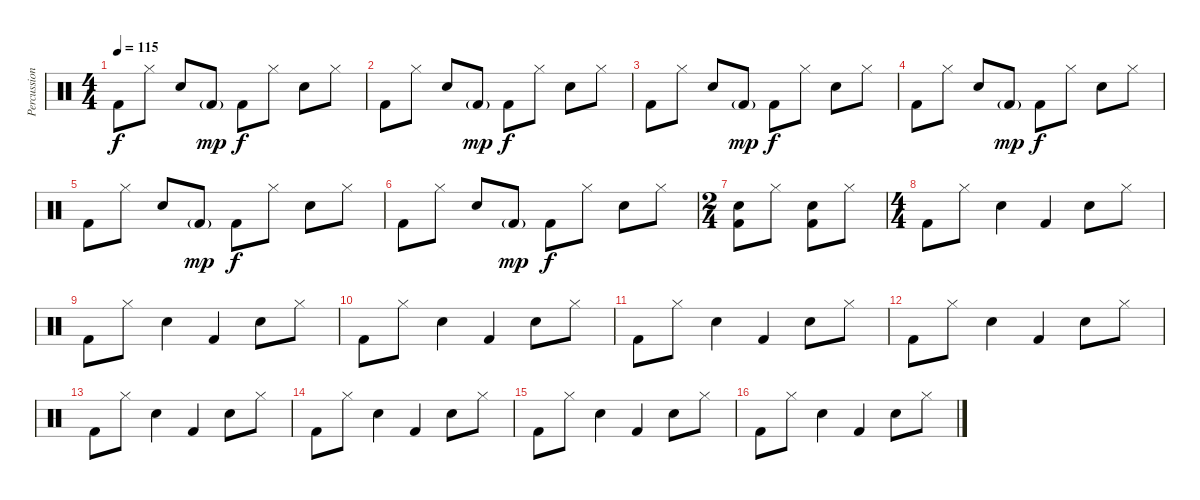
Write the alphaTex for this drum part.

\track ("Percussion" "Percussion") {instrument percussion}
\staff {score}
\articulation defaults
\ts (4 4)
\tempo 115
\clef neutral
\ks c "Kick (hit) 2".8{dy f} "Hi-Hat (closed)".8 "Snare (hit) 2".8 "Kick (hit) 2"{g}.8{dy mp} "Kick (hit) 2".8{dy f} "Hi-Hat (closed)".8 "Snare (hit) 2".8 "Hi-Hat (closed)".8
|
"Kick (hit) 2".8 "Hi-Hat (closed)".8 "Snare (hit) 2".8 "Kick (hit) 2"{g}.8{dy mp} "Kick (hit) 2".8{dy f} "Hi-Hat (closed)".8 "Snare (hit) 2".8 "Hi-Hat (closed)".8 |
"Kick (hit) 2".8 "Hi-Hat (closed)".8 "Snare (hit) 2".8 "Kick (hit) 2"{g}.8{dy mp} "Kick (hit) 2".8{dy f} "Hi-Hat (closed)".8 "Snare (hit) 2".8 "Hi-Hat (closed)".8 |
"Kick (hit) 2".8 "Hi-Hat (closed)".8 "Snare (hit) 2".8 "Kick (hit) 2"{g}.8{dy mp} "Kick (hit) 2".8{dy f} "Hi-Hat (closed)".8 "Snare (hit) 2".8 "Hi-Hat (closed)".8 |
"Kick (hit) 2".8 "Hi-Hat (closed)".8 "Snare (hit) 2".8 "Kick (hit) 2"{g}.8{dy mp} "Kick (hit) 2".8{dy f} "Hi-Hat (closed)".8 "Snare (hit) 2".8 "Hi-Hat (closed)".8 |
"Kick (hit) 2".8 "Hi-Hat (closed)".8 "Snare (hit) 2".8 "Kick (hit) 2"{g}.8{dy mp} "Kick (hit) 2".8{dy f} "Hi-Hat (closed)".8 "Snare (hit) 2".8 "Hi-Hat (closed)".8 |
\ts (2 4)
("Snare (hit) 2" "Kick (hit) 2").8 "Hi-Hat (closed)".8 ("Snare (hit) 2" "Kick (hit) 2").8 "Hi-Hat (closed)".8 |
\ts (4 4)
"Kick (hit) 2".8 "Hi-Hat (closed)".8 "Snare (hit) 2".4 "Kick (hit) 2".4 "Snare (hit) 2".8 "Hi-Hat (closed)".8 |
"Kick (hit) 2".8 "Hi-Hat (closed)".8 "Snare (hit) 2".4 "Kick (hit) 2".4 "Snare (hit) 2".8 "Hi-Hat (closed)".8 |
"Kick (hit) 2".8 "Hi-Hat (closed)".8 "Snare (hit) 2".4 "Kick (hit) 2".4 "Snare (hit) 2".8 "Hi-Hat (closed)".8 |
"Kick (hit) 2".8 "Hi-Hat (closed)".8 "Snare (hit) 2".4 "Kick (hit) 2".4 "Snare (hit) 2".8 "Hi-Hat (closed)".8 |
"Kick (hit) 2".8 "Hi-Hat (closed)".8 "Snare (hit) 2".4 "Kick (hit) 2".4 "Snare (hit) 2".8 "Hi-Hat (closed)".8 |
"Kick (hit) 2".8 "Hi-Hat (closed)".8 "Snare (hit) 2".4 "Kick (hit) 2".4 "Snare (hit) 2".8 "Hi-Hat (closed)".8 |
"Kick (hit) 2".8 "Hi-Hat (closed)".8 "Snare (hit) 2".4 "Kick (hit) 2".4 "Snare (hit) 2".8 "Hi-Hat (closed)".8 |
"Kick (hit) 2".8 "Hi-Hat (closed)".8 "Snare (hit) 2".4 "Kick (hit) 2".4 "Snare (hit) 2".8 "Hi-Hat (closed)".8 |
"Kick (hit) 2".8 "Hi-Hat (closed)".8 "Snare (hit) 2".4 "Kick (hit) 2".4 "Snare (hit) 2".8 "Hi-Hat (closed)".8
